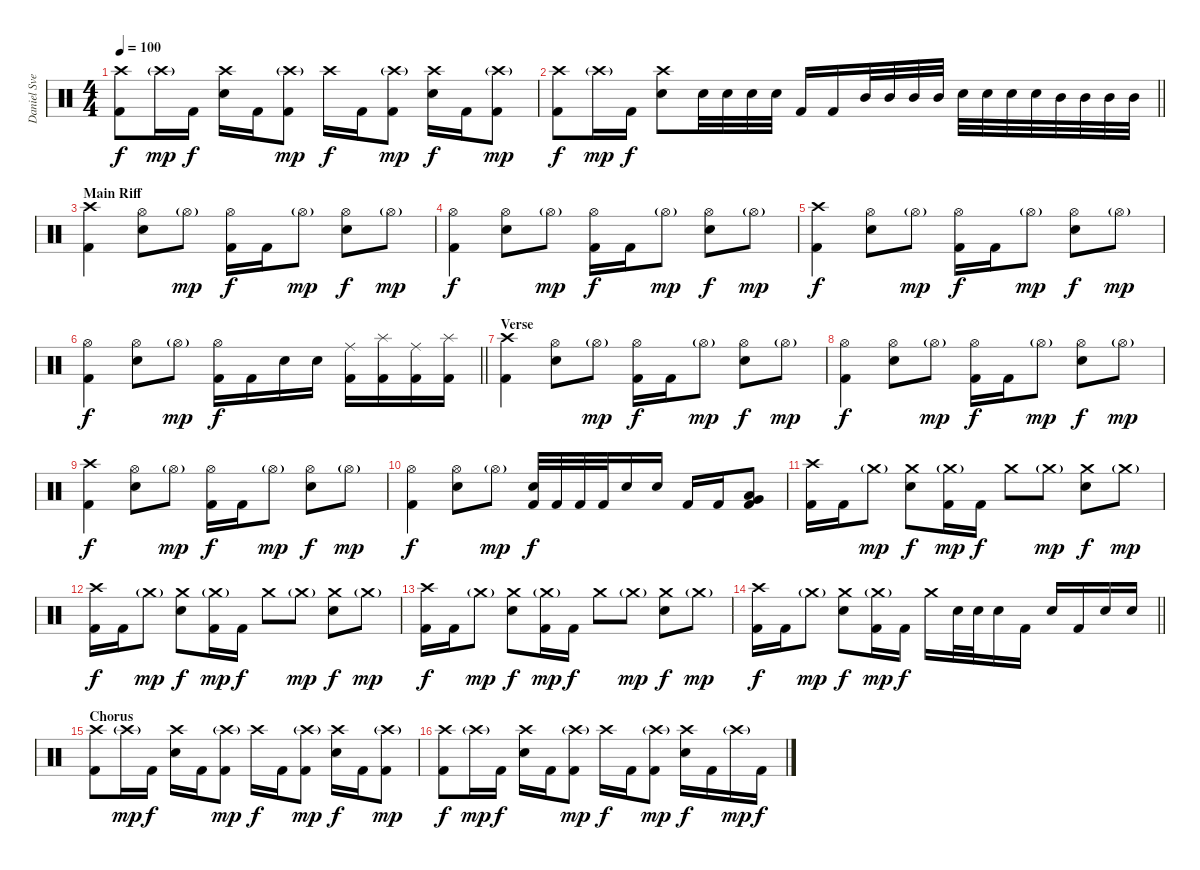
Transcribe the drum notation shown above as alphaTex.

\track ("Daniel Svensson" "Daniel Sve") {instrument percussion}
\staff {score}
\articulation defaults
\ts (4 4)
\tempo 100
\clef neutral
\ks c
("Crash high (hit)" "Kick (hit) 2").8{dy f} "Crash high (hit)"{g}.16{dy mp} "Kick (hit) 2".16{dy f} ("Crash high (hit)" "Snare (hit) 2").16 "Kick (hit) 2".16 ("Crash high (hit)"{g} "Kick (hit) 2").8{dy mp} "Crash high (hit)".16{dy f} "Kick (hit) 2".16 ("Crash high (hit)"{g} "Kick (hit) 2").8{dy mp} ("Crash high (hit)" "Snare (hit) 2").16{dy f} "Kick (hit) 2".16 ("Crash high (hit)"{g} "Kick (hit) 2").8{dy mp} |
\barLineRight lightlight
("Crash high (hit)" "Kick (hit) 2").8{dy f} "Crash high (hit)"{g}.16{dy mp} "Kick (hit) 2".16{dy f} ("Crash high (hit)" "Snare (hit) 2").8 "Snare (hit) 2".32 "Snare (hit) 2".32 "Snare (hit) 2".32 "Snare (hit) 2".32 "Kick (hit) 2".16 "Kick (hit) 2".16 "Mid Tom (hit)".32 "Mid Tom (hit)".32 "Mid Tom (hit)".32 "Mid Tom (hit)".32 "Snare (hit) 2".32 "Snare (hit) 2".32 "Snare (hit) 2".32 "Snare (hit) 2".32 "Mid Tom (hit)".32 "Mid Tom (hit)".32 "Mid Tom (hit)".32 "Mid Tom (hit)".32 |
\section ("" "Main Riff")
("Crash high (hit)" "Kick (hit) 2").4 ("Hi-Hat (open)" "Snare (hit) 2").8 "Hi-Hat (open)"{g}.8{dy mp} ("Hi-Hat (open)" "Kick (hit) 2").16{dy f} "Kick (hit) 2".16 "Hi-Hat (open)"{g}.8{dy mp} ("Hi-Hat (open)" "Snare (hit) 2").8{dy f} "Hi-Hat (open)"{g}.8{dy mp} |
("Hi-Hat (open)" "Kick (hit) 2").4{dy f} ("Hi-Hat (open)" "Snare (hit) 2").8 "Hi-Hat (open)"{g}.8{dy mp} ("Hi-Hat (open)" "Kick (hit) 2").16{dy f} "Kick (hit) 2".16 "Hi-Hat (open)"{g}.8{dy mp} ("Hi-Hat (open)" "Snare (hit) 2").8{dy f} "Hi-Hat (open)"{g}.8{dy mp} |
("Crash high (hit)" "Kick (hit) 2").4{dy f} ("Hi-Hat (open)" "Snare (hit) 2").8 "Hi-Hat (open)"{g}.8{dy mp} ("Hi-Hat (open)" "Kick (hit) 2").16{dy f} "Kick (hit) 2".16 "Hi-Hat (open)"{g}.8{dy mp} ("Hi-Hat (open)" "Snare (hit) 2").8{dy f} "Hi-Hat (open)"{g}.8{dy mp} |
\barLineRight lightlight
("Hi-Hat (open)" "Kick (hit) 2").4{dy f} ("Hi-Hat (open)" "Snare (hit) 2").8 "Hi-Hat (open)"{g}.8{dy mp} ("Hi-Hat (open)" "Kick (hit) 2").16{dy f} "Kick (hit) 2".16 "Snare (hit) 2".16 "Snare (hit) 2".16 ("Ride (middle)" "Kick (hit) 2").16 ("Splash (hit)" "Kick (hit) 2").16 ("Ride (middle)" "Kick (hit) 2").16 ("Splash (hit)" "Kick (hit) 2").16 |
\section ("" "Verse")
("Crash high (hit)" "Kick (hit) 2").4 ("Hi-Hat (open)" "Snare (hit) 2").8 "Hi-Hat (open)"{g}.8{dy mp} ("Hi-Hat (open)" "Kick (hit) 2").16{dy f} "Kick (hit) 2".16 "Hi-Hat (open)"{g}.8{dy mp} ("Hi-Hat (open)" "Snare (hit) 2").8{dy f} "Hi-Hat (open)"{g}.8{dy mp} |
("Hi-Hat (open)" "Kick (hit) 2").4{dy f} ("Hi-Hat (open)" "Snare (hit) 2").8 "Hi-Hat (open)"{g}.8{dy mp} ("Hi-Hat (open)" "Kick (hit) 2").16{dy f} "Kick (hit) 2".16 "Hi-Hat (open)"{g}.8{dy mp} ("Hi-Hat (open)" "Snare (hit) 2").8{dy f} "Hi-Hat (open)"{g}.8{dy mp} |
("Crash high (hit)" "Kick (hit) 2").4{dy f} ("Hi-Hat (open)" "Snare (hit) 2").8 "Hi-Hat (open)"{g}.8{dy mp} ("Hi-Hat (open)" "Kick (hit) 2").16{dy f} "Kick (hit) 2".16 "Hi-Hat (open)"{g}.8{dy mp} ("Hi-Hat (open)" "Snare (hit) 2").8{dy f} "Hi-Hat (open)"{g}.8{dy mp} |
("Hi-Hat (open)" "Kick (hit) 2").4{dy f} ("Hi-Hat (open)" "Snare (hit) 2").8 "Hi-Hat (open)"{g}.8{dy mp} ("Snare (hit) 2" "Kick (hit) 2").32{dy f} "Kick (hit) 2".32 "Kick (hit) 2".32 "Kick (hit) 2".32 "Snare (hit) 2".16 "Snare (hit) 2".16 "Kick (hit) 2".16 "Kick (hit) 2".16 ("Low Tom (hit)" "Very Low Tom (hit)" "Kick (hit) 2").8 |
("Crash high (hit)" "Kick (hit) 2").16 "Kick (hit) 2".16 "Crash medium (hit)"{g}.8{dy mp} ("Crash medium (hit)" "Snare (hit) 2").8{dy f} ("Crash medium (hit)"{g} "Kick (hit) 2").16{dy mp} "Kick (hit) 2".16{dy f} "Crash medium (hit)".8 "Crash medium (hit)"{g}.8{dy mp} ("Crash medium (hit)" "Snare (hit) 2").8{dy f} "Crash medium (hit)"{g}.8{dy mp} |
("Crash high (hit)" "Kick (hit) 2").16{dy f} "Kick (hit) 2".16 "Crash medium (hit)"{g}.8{dy mp} ("Crash medium (hit)" "Snare (hit) 2").8{dy f} ("Crash medium (hit)"{g} "Kick (hit) 2").16{dy mp} "Kick (hit) 2".16{dy f} "Crash medium (hit)".8 "Crash medium (hit)"{g}.8{dy mp} ("Crash medium (hit)" "Snare (hit) 2").8{dy f} "Crash medium (hit)"{g}.8{dy mp} |
("Crash high (hit)" "Kick (hit) 2").16{dy f} "Kick (hit) 2".16 "Crash medium (hit)"{g}.8{dy mp} ("Crash medium (hit)" "Snare (hit) 2").8{dy f} ("Crash medium (hit)"{g} "Kick (hit) 2").16{dy mp} "Kick (hit) 2".16{dy f} "Crash medium (hit)".8 "Crash medium (hit)"{g}.8{dy mp} ("Crash medium (hit)" "Snare (hit) 2").8{dy f} "Crash medium (hit)"{g}.8{dy mp} |
\barLineRight lightlight
("Crash high (hit)" "Kick (hit) 2").16{dy f} "Kick (hit) 2".16 "Crash medium (hit)"{g}.8{dy mp} ("Crash medium (hit)" "Snare (hit) 2").8{dy f} ("Crash medium (hit)"{g} "Kick (hit) 2").16{dy mp} "Kick (hit) 2".16{dy f} "Crash medium (hit)".16 "Snare (hit) 2".32 "Snare (hit) 2".32 "Snare (hit) 2".16 "Kick (hit) 2".16 "Snare (hit) 2".16 "Kick (hit) 2".16 "Snare (hit) 2".16 "Snare (hit) 2".16 |
\section ("" "Chorus")
("Crash high (hit)" "Kick (hit) 2").8 "Crash high (hit)"{g}.16{dy mp} "Kick (hit) 2".16{dy f} ("Crash high (hit)" "Snare (hit) 2").16 "Kick (hit) 2".16 ("Crash high (hit)"{g} "Kick (hit) 2").8{dy mp} "Crash high (hit)".16{dy f} "Kick (hit) 2".16 ("Crash high (hit)"{g} "Kick (hit) 2").8{dy mp} ("Crash high (hit)" "Snare (hit) 2").16{dy f} "Kick (hit) 2".16 ("Crash high (hit)"{g} "Kick (hit) 2").8{dy mp} |
("Crash high (hit)" "Kick (hit) 2").8{dy f} "Crash high (hit)"{g}.16{dy mp} "Kick (hit) 2".16{dy f} ("Crash high (hit)" "Snare (hit) 2").16 "Kick (hit) 2".16 ("Crash high (hit)"{g} "Kick (hit) 2").8{dy mp} "Crash high (hit)".16{dy f} "Kick (hit) 2".16 ("Crash high (hit)"{g} "Kick (hit) 2").8{dy mp} ("Crash high (hit)" "Snare (hit) 2").16{dy f} "Kick (hit) 2".16 "Crash high (hit)"{g}.16{dy mp} "Kick (hit) 2".16{dy f}
